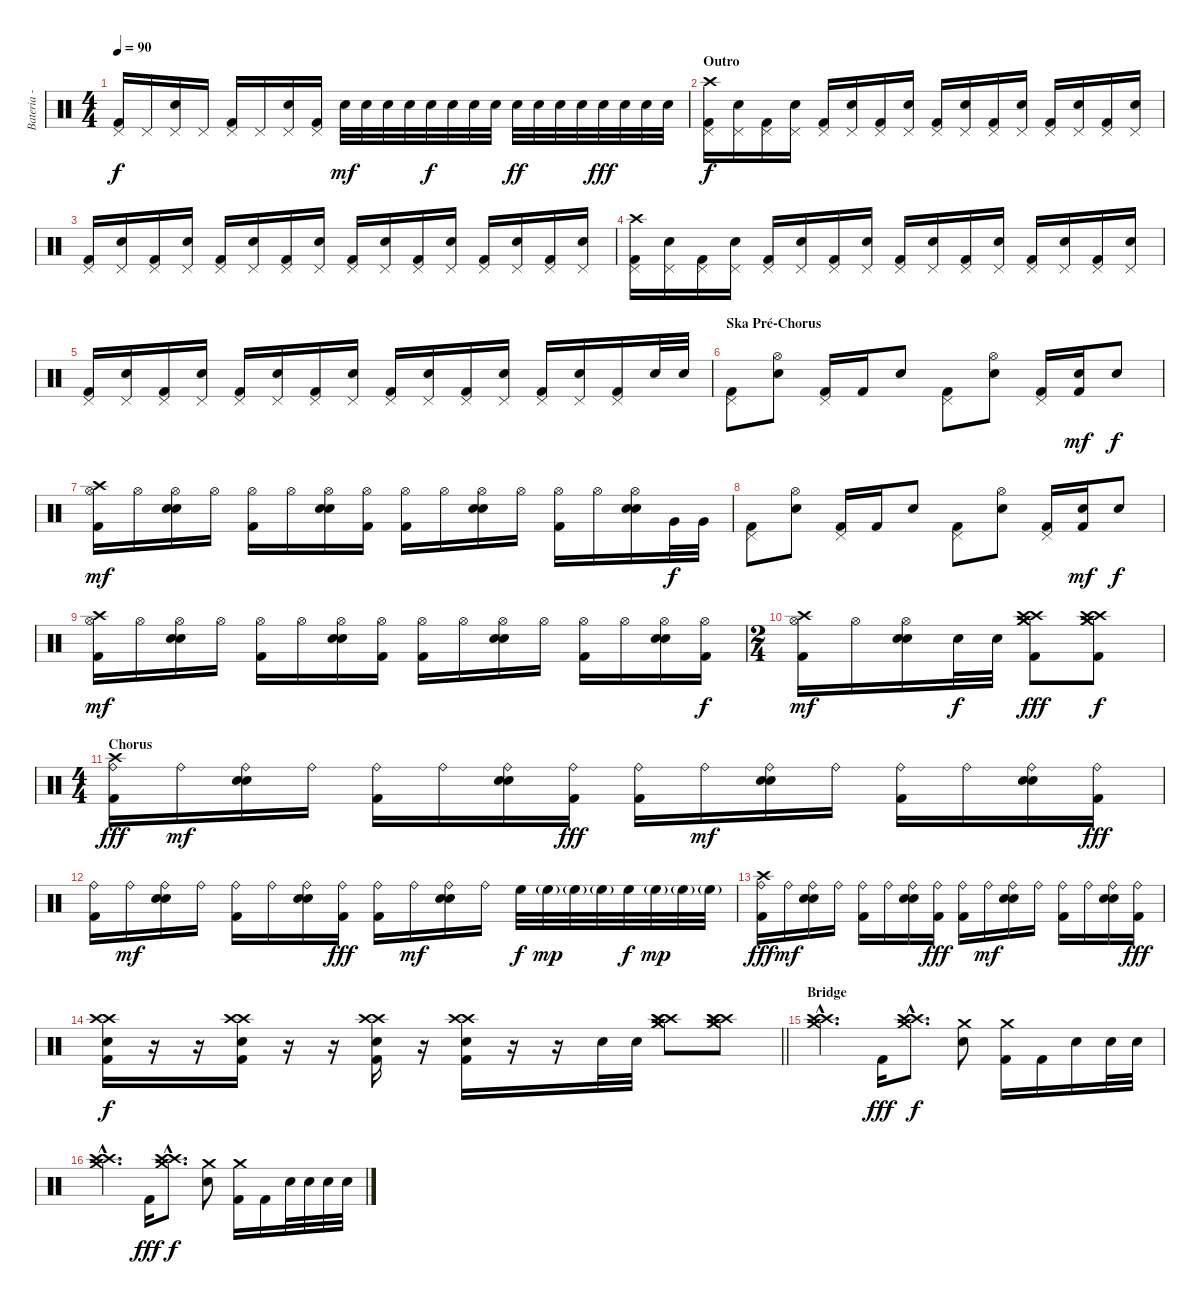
\track ("Bateria - Larzon" "Bateria - ") {instrument percussion}
\staff {score}
\articulation defaults
\ts (4 4)
\tempo 90
\clef neutral
\ks c
("Kick (hit) 2" "Pedal Hi-Hat (hit)").16{dy f} "Pedal Hi-Hat (hit)".16 ("Snare (hit) 2" "Pedal Hi-Hat (hit)").16 "Pedal Hi-Hat (hit)".16 ("Kick (hit) 2" "Pedal Hi-Hat (hit)").16 "Pedal Hi-Hat (hit)".16 ("Snare (hit) 2" "Pedal Hi-Hat (hit)").16 ("Kick (hit) 2" "Pedal Hi-Hat (hit)").16 "Snare (hit) 2".32{dy mf} "Snare (hit) 2".32 "Snare (hit) 2".32 "Snare (hit) 2".32 "Snare (hit) 2".32{dy f} "Snare (hit) 2".32 "Snare (hit) 2".32 "Snare (hit) 2".32 "Snare (hit) 2".32{dy ff} "Snare (hit) 2".32 "Snare (hit) 2".32 "Snare (hit) 2".32 "Snare (hit) 2".32{dy fff} "Snare (hit) 2".32 "Snare (hit) 2".32 "Snare (hit) 2".32 |
\section ("" "Outro")
("Kick (hit) 2" "Crash high (hit)" "Pedal Hi-Hat (hit)").16{dy f} ("Snare (hit) 2" "Pedal Hi-Hat (hit)").16 ("Kick (hit) 2" "Pedal Hi-Hat (hit)").16 ("Snare (hit) 2" "Pedal Hi-Hat (hit)").16 ("Kick (hit) 2" "Pedal Hi-Hat (hit)").16 ("Snare (hit) 2" "Pedal Hi-Hat (hit)").16 ("Kick (hit) 2" "Pedal Hi-Hat (hit)").16 ("Snare (hit) 2" "Pedal Hi-Hat (hit)").16 ("Kick (hit) 2" "Pedal Hi-Hat (hit)").16 ("Snare (hit) 2" "Pedal Hi-Hat (hit)").16 ("Kick (hit) 2" "Pedal Hi-Hat (hit)").16 ("Snare (hit) 2" "Pedal Hi-Hat (hit)").16 ("Kick (hit) 2" "Pedal Hi-Hat (hit)").16 ("Snare (hit) 2" "Pedal Hi-Hat (hit)").16 ("Kick (hit) 2" "Pedal Hi-Hat (hit)").16 ("Snare (hit) 2" "Pedal Hi-Hat (hit)").16 |
("Kick (hit) 2" "Pedal Hi-Hat (hit)").16 ("Snare (hit) 2" "Pedal Hi-Hat (hit)").16 ("Kick (hit) 2" "Pedal Hi-Hat (hit)").16 ("Snare (hit) 2" "Pedal Hi-Hat (hit)").16 ("Kick (hit) 2" "Pedal Hi-Hat (hit)").16 ("Snare (hit) 2" "Pedal Hi-Hat (hit)").16 ("Kick (hit) 2" "Pedal Hi-Hat (hit)").16 ("Snare (hit) 2" "Pedal Hi-Hat (hit)").16 ("Kick (hit) 2" "Pedal Hi-Hat (hit)").16 ("Snare (hit) 2" "Pedal Hi-Hat (hit)").16 ("Kick (hit) 2" "Pedal Hi-Hat (hit)").16 ("Snare (hit) 2" "Pedal Hi-Hat (hit)").16 ("Kick (hit) 2" "Pedal Hi-Hat (hit)").16 ("Snare (hit) 2" "Pedal Hi-Hat (hit)").16 ("Kick (hit) 2" "Pedal Hi-Hat (hit)").16 ("Snare (hit) 2" "Pedal Hi-Hat (hit)").16 |
("Kick (hit) 2" "Crash high (hit)" "Pedal Hi-Hat (hit)").16 ("Snare (hit) 2" "Pedal Hi-Hat (hit)").16 ("Kick (hit) 2" "Pedal Hi-Hat (hit)").16 ("Snare (hit) 2" "Pedal Hi-Hat (hit)").16 ("Kick (hit) 2" "Pedal Hi-Hat (hit)").16 ("Snare (hit) 2" "Pedal Hi-Hat (hit)").16 ("Kick (hit) 2" "Pedal Hi-Hat (hit)").16 ("Snare (hit) 2" "Pedal Hi-Hat (hit)").16 ("Kick (hit) 2" "Pedal Hi-Hat (hit)").16 ("Snare (hit) 2" "Pedal Hi-Hat (hit)").16 ("Kick (hit) 2" "Pedal Hi-Hat (hit)").16 ("Snare (hit) 2" "Pedal Hi-Hat (hit)").16 ("Kick (hit) 2" "Pedal Hi-Hat (hit)").16 ("Snare (hit) 2" "Pedal Hi-Hat (hit)").16 ("Kick (hit) 2" "Pedal Hi-Hat (hit)").16 ("Snare (hit) 2" "Pedal Hi-Hat (hit)").16 |
("Kick (hit) 2" "Pedal Hi-Hat (hit)").16 ("Snare (hit) 2" "Pedal Hi-Hat (hit)").16 ("Kick (hit) 2" "Pedal Hi-Hat (hit)").16 ("Snare (hit) 2" "Pedal Hi-Hat (hit)").16 ("Kick (hit) 2" "Pedal Hi-Hat (hit)").16 ("Snare (hit) 2" "Pedal Hi-Hat (hit)").16 ("Kick (hit) 2" "Pedal Hi-Hat (hit)").16 ("Snare (hit) 2" "Pedal Hi-Hat (hit)").16 ("Kick (hit) 2" "Pedal Hi-Hat (hit)").16 ("Snare (hit) 2" "Pedal Hi-Hat (hit)").16 ("Kick (hit) 2" "Pedal Hi-Hat (hit)").16 ("Snare (hit) 2" "Pedal Hi-Hat (hit)").16 ("Kick (hit) 2" "Pedal Hi-Hat (hit)").16 ("Snare (hit) 2" "Pedal Hi-Hat (hit)").16 ("Kick (hit) 2" "Pedal Hi-Hat (hit)").16 "Snare (hit) 2".32 "Snare (hit) 2".32 |
\section ("" "Ska Pré-Chorus")
("Kick (hit) 2" "Pedal Hi-Hat (hit)").8 ("Snare (hit) 2" "Hi-Hat (open)").8 ("Kick (hit) 2" "Pedal Hi-Hat (hit)").16 "Kick (hit) 2".16 "Snare (hit) 2".8 ("Kick (hit) 2" "Pedal Hi-Hat (hit)").8 ("Snare (hit) 2" "Hi-Hat (open)").8 ("Kick (hit) 2" "Pedal Hi-Hat (hit)").16 ("Kick (hit) 2" "Snare (hit) 2").16{dy mf} "Snare (hit) 2".8{dy f} |
("Kick (hit) 2" "Crash high (hit)" "Hi-Hat (open)").16{dy mf} "Hi-Hat (open)".16 ("Snare (hit) 2" "Snare (hit) 2" "Hi-Hat (open)").16 "Hi-Hat (open)".16 ("Kick (hit) 2" "Hi-Hat (open)").16 "Hi-Hat (open)".16 ("Snare (hit) 2" "Snare (hit) 2" "Hi-Hat (open)").16 ("Kick (hit) 2" "Hi-Hat (open)").16 ("Kick (hit) 2" "Hi-Hat (open)").16 "Hi-Hat (open)".16 ("Snare (hit) 2" "Snare (hit) 2" "Hi-Hat (open)").16 "Hi-Hat (open)".16 ("Kick (hit) 2" "Hi-Hat (open)").16 "Hi-Hat (open)".16 ("Snare (hit) 2" "Snare (hit) 2" "Hi-Hat (open)").16 "Very Low Tom (hit)".32{dy f} "Very Low Tom (hit)".32 |
("Kick (hit) 2" "Pedal Hi-Hat (hit)").8 ("Snare (hit) 2" "Hi-Hat (open)").8 ("Kick (hit) 2" "Pedal Hi-Hat (hit)").16 "Kick (hit) 2".16 "Snare (hit) 2".8 ("Kick (hit) 2" "Pedal Hi-Hat (hit)").8 ("Snare (hit) 2" "Hi-Hat (open)").8 ("Kick (hit) 2" "Pedal Hi-Hat (hit)").16 ("Kick (hit) 2" "Snare (hit) 2").16{dy mf} "Snare (hit) 2".8{dy f} |
("Kick (hit) 2" "Crash high (hit)" "Hi-Hat (open)").16{dy mf} "Hi-Hat (open)".16 ("Snare (hit) 2" "Snare (hit) 2" "Hi-Hat (open)").16 "Hi-Hat (open)".16 ("Kick (hit) 2" "Hi-Hat (open)").16 "Hi-Hat (open)".16 ("Snare (hit) 2" "Snare (hit) 2" "Hi-Hat (open)").16 ("Kick (hit) 2" "Hi-Hat (open)").16 ("Kick (hit) 2" "Hi-Hat (open)").16 "Hi-Hat (open)".16 ("Snare (hit) 2" "Snare (hit) 2" "Hi-Hat (open)").16 "Hi-Hat (open)".16 ("Kick (hit) 2" "Hi-Hat (open)").16 "Hi-Hat (open)".16 ("Snare (hit) 2" "Snare (hit) 2" "Hi-Hat (open)").16 ("Kick (hit) 2" "Hi-Hat (open)").16{dy f} |
\ts (2 4)
("Kick (hit) 2" "Crash high (hit)" "Hi-Hat (open)").16{dy mf} "Hi-Hat (open)".16 ("Snare (hit) 2" "Snare (hit) 2" "Hi-Hat (open)").16 "Snare (hit) 2".32{dy f} "Snare (hit) 2".32 ("Crash high (hit)" "Crash high (hit)" "Crash medium (hit)" "Crash medium (hit)" "Kick (hit) 2").8{dy fff} ("Crash high (hit)" "Crash high (hit)" "Crash medium (hit)" "Crash medium (hit)" "Kick (hit) 2").8{dy f} |
\ts (4 4)
\section ("" "Chorus")
("Kick (hit) 2" "Crash high (hit)" "Ride (bell)").16{dy fff} "Ride (bell)".16{dy mf} ("Snare (hit) 2" "Snare (hit) 2" "Ride (bell)").16 "Ride (bell)".16 ("Kick (hit) 2" "Ride (bell)").16 "Ride (bell)".16 ("Snare (hit) 2" "Snare (hit) 2" "Ride (bell)").16 ("Kick (hit) 2" "Ride (bell)").16{dy fff} ("Kick (hit) 2" "Ride (bell)").16 "Ride (bell)".16{dy mf} ("Snare (hit) 2" "Snare (hit) 2" "Ride (bell)").16 "Ride (bell)".16 ("Kick (hit) 2" "Ride (bell)").16 "Ride (bell)".16 ("Snare (hit) 2" "Snare (hit) 2" "Ride (bell)").16 ("Kick (hit) 2" "Ride (bell)").16{dy fff} |
("Kick (hit) 2" "Ride (bell)").16 "Ride (bell)".16{dy mf} ("Snare (hit) 2" "Snare (hit) 2" "Ride (bell)").16 "Ride (bell)".16 ("Kick (hit) 2" "Ride (bell)").16 "Ride (bell)".16 ("Snare (hit) 2" "Snare (hit) 2" "Ride (bell)").16 ("Kick (hit) 2" "Ride (bell)").16{dy fff} ("Kick (hit) 2" "Ride (bell)").16 "Ride (bell)".16{dy mf} ("Snare (hit) 2" "Snare (hit) 2" "Ride (bell)").16 "Ride (bell)".16 "High Floor Tom (hit)".32{dy f} "High Floor Tom (hit)"{g}.32{dy mp} "High Floor Tom (hit)"{g}.32 "High Floor Tom (hit)"{g}.32 "High Floor Tom (hit)".32{dy f} "High Floor Tom (hit)"{g}.32{dy mp} "High Floor Tom (hit)"{g}.32 "High Floor Tom (hit)"{g}.32 |
("Kick (hit) 2" "Crash high (hit)" "Ride (bell)").16{dy fff} "Ride (bell)".16{dy mf} ("Snare (hit) 2" "Snare (hit) 2" "Ride (bell)").16 "Ride (bell)".16 ("Kick (hit) 2" "Ride (bell)").16 "Ride (bell)".16 ("Snare (hit) 2" "Snare (hit) 2" "Ride (bell)").16 ("Kick (hit) 2" "Ride (bell)").16{dy fff} ("Kick (hit) 2" "Ride (bell)").16 "Ride (bell)".16{dy mf} ("Snare (hit) 2" "Snare (hit) 2" "Ride (bell)").16 "Ride (bell)".16 ("Kick (hit) 2" "Ride (bell)").16 "Ride (bell)".16 ("Snare (hit) 2" "Snare (hit) 2" "Ride (bell)").16 ("Kick (hit) 2" "Ride (bell)").16{dy fff} |
\barLineRight lightlight
("Crash high (hit)" "Crash high (hit)" "Snare (hit) 2" "Kick (hit) 2").16{dy f} r.16 r.16 ("Crash high (hit)" "Crash high (hit)" "Snare (hit) 2" "Kick (hit) 2").16 r.16 r.16 ("Crash high (hit)" "Crash high (hit)" "Snare (hit) 2" "Kick (hit) 2").16 r.16 ("Crash high (hit)" "Crash high (hit)" "Snare (hit) 2" "Kick (hit) 2").16 r.16 r.16 "Snare (hit) 2".32 "Snare (hit) 2".32 ("Crash high (hit)" "Crash high (hit)" "Crash high (hit)" "Crash medium (hit)" "Crash medium (hit)").8 ("Crash high (hit)" "Crash high (hit)" "Crash high (hit)" "Crash medium (hit)" "Crash medium (hit)").8 |
\section ("" "Bridge")
("Crash medium (hit)"{hac} "Crash high (hit)"{hac} "Crash high (hit)"{hac}).4{d} "Kick (hit) 2".16{dy fff} ("Crash medium (hit)"{hac} "Crash high (hit)"{hac} "Crash high (hit)"{hac}).8{d dy f} ("Snare (hit) 2" "Crash medium (hit)").8 ("Kick (hit) 2" "Crash medium (hit)").16 "Kick (hit) 2".16 "Snare (hit) 2".16 "Snare (hit) 2".32 "Snare (hit) 2".32 |
("Crash medium (hit)"{hac} "Crash high (hit)"{hac} "Crash high (hit)"{hac}).4{d} "Kick (hit) 2".16{dy fff} ("Crash medium (hit)"{hac} "Crash high (hit)"{hac} "Crash high (hit)"{hac}).8{d dy f} ("Snare (hit) 2" "Crash medium (hit)").8 ("Kick (hit) 2" "Crash medium (hit)").16 "Kick (hit) 2".16 "Snare (hit) 2".32 "Snare (hit) 2".32 "Snare (hit) 2".32 "Snare (hit) 2".32
